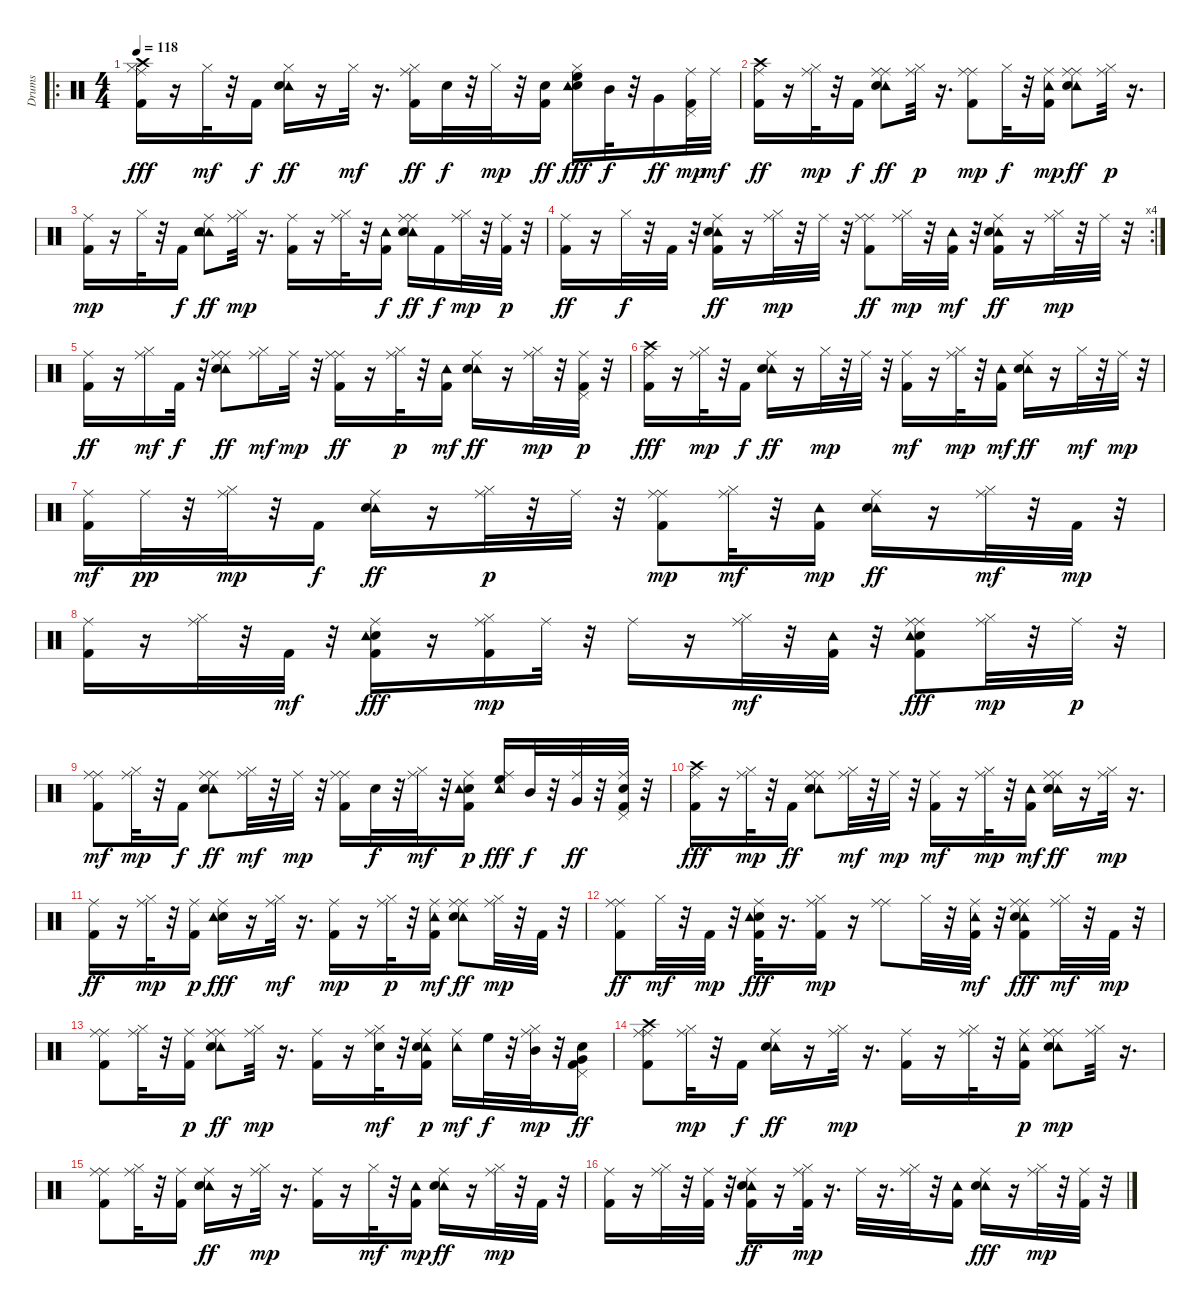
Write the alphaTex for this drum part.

\track ("Drums" "Drums") {instrument percussion}
\staff {score}
\articulation defaults
\ro
\ts (4 4)
\tempo 118
\clef neutral
\ks c
("Hi-Hat (closed)" "Kick (hit) 2" "Ride (middle)" "Crash high (hit)").16{dy fff} r.16 "Hi-Hat (closed)".32{dy mf} r.32 "Kick (hit) 2".16{dy f} ("Hi-Hat (closed)" "Tambourine (hit)" "Electric Snare (hit)").16{dy ff} r.16 "Hi-Hat (closed)".32{dy mf} r.16{d} ("Hi-Hat (closed)" "Ride (middle)" "Kick (hit) 2").16{dy ff} "Electric Snare (hit)".32{dy f} r.32 "Hi-Hat (closed)".32{dy mp} r.32 ("Kick (hit) 2" "Electric Snare (hit)").16{dy ff} ("High Floor Tom (hit)" "Electric Snare (hit)" "Hi-Hat (closed)" "Tambourine (hit)").16{dy fff} "Mid Tom (hit)".32{dy f} r.32 "Very Low Tom (hit)".16{dy ff} ("Pedal Hi-Hat (hit)" "Kick (hit) 2" "Ride (middle)").32{dy mp} "Ride (middle)".32{dy mf} |
("Kick (hit) 2" "Ride (middle)" "Crash high (hit)").16{dy ff} r.16 ("Ride (middle)" "Hi-Hat (closed)").32{dy mp} r.32 "Kick (hit) 2".16{dy f} ("Ride (middle)" "Ride (middle)" "Tambourine (hit)" "Electric Snare (hit)").8{dy ff} ("Hi-Hat (closed)" "Ride (middle)").32{dy p} r.16{d} ("Kick (hit) 2" "Ride (middle)" "Ride (middle)").8{dy mp} "Hi-Hat (closed)".32{dy f} r.32 ("Tambourine (hit)" "Kick (hit) 2" "Ride (middle)").16{dy mp} ("Ride (middle)" "Ride (middle)" "Tambourine (hit)" "Electric Snare (hit)").8{dy ff} ("Ride (middle)" "Hi-Hat (closed)").32{dy p} r.16{d} |
("Ride (middle)" "Kick (hit) 2").16{dy mp} r.16 "Hi-Hat (closed)".32 r.32 "Kick (hit) 2".16{dy f} ("Ride (middle)" "Tambourine (hit)" "Tambourine (hit)" "Electric Snare (hit)").8{dy ff} ("Hi-Hat (closed)" "Ride (middle)").32{dy mp} r.16{d} ("Ride (middle)" "Kick (hit) 2").16 r.16 ("Ride (middle)" "Hi-Hat (closed)").32 r.32 ("Kick (hit) 2" "Tambourine (hit)").16{dy f} ("Ride (middle)" "Ride (middle)" "Tambourine (hit)" "Electric Snare (hit)").16{dy ff} "Kick (hit) 2".16{dy f} ("Ride (middle)" "Hi-Hat (closed)").32{dy mp} r.32 ("Kick (hit) 2" "Ride (middle)").32{dy p} r.32 |
\rc 4
("Ride (middle)" "Kick (hit) 2").16{dy ff} r.16 "Hi-Hat (closed)".32{dy f} r.32 "Kick (hit) 2".32 r.32 ("Ride (middle)" "Kick (hit) 2" "Tambourine (hit)" "Electric Snare (hit)").16{dy ff} r.16 ("Hi-Hat (closed)" "Ride (middle)").32{dy mp} r.32 "Ride (middle)".32 r.32 ("Ride (middle)" "Ride (middle)" "Kick (hit) 2").8{dy ff} ("Ride (middle)" "Hi-Hat (closed)").32{dy mp} r.32 ("Kick (hit) 2" "Tambourine (hit)").32{dy mf} r.32 ("Kick (hit) 2" "Ride (middle)" "Tambourine (hit)" "Electric Snare (hit)").16{dy ff} r.16 ("Ride (middle)" "Hi-Hat (closed)").32{dy mp} r.32 "Ride (middle)".32 r.32 |
("Ride (middle)" "Kick (hit) 2").16{dy ff} r.16 ("Ride (middle)" "Hi-Hat (closed)").16{dy mf} "Kick (hit) 2".32{dy f} r.32 ("Tambourine (hit)" "Ride (middle)" "Ride (middle)" "Electric Snare (hit)").8{dy ff} ("Ride (middle)" "Hi-Hat (closed)").16{dy mf} "Ride (middle)".32{dy mp} r.32 ("Ride (middle)" "Ride (middle)" "Kick (hit) 2").16{dy ff} r.16 ("Ride (middle)" "Hi-Hat (closed)").32{dy p} r.32 ("Kick (hit) 2" "Tambourine (hit)").16{dy mf} ("Ride (middle)" "Tambourine (hit)" "Electric Snare (hit)").16{dy ff} r.16 ("Ride (middle)" "Hi-Hat (closed)").32{dy mp} r.32 ("Pedal Hi-Hat (hit)" "Kick (hit) 2" "Ride (middle)").32{dy p} r.32 |
("Kick (hit) 2" "Ride (middle)" "Crash high (hit)").16{dy fff} r.16 ("Hi-Hat (closed)" "Ride (middle)").32{dy mp} r.32 "Kick (hit) 2".16{dy f} ("Ride (middle)" "Tambourine (hit)" "Electric Snare (hit)").16{dy ff} r.16 "Hi-Hat (closed)".32{dy mp} r.32 "Ride (middle)".32 r.32 ("Kick (hit) 2" "Ride (middle)").16{dy mf} r.16 ("Hi-Hat (closed)" "Ride (middle)").32{dy mp} r.32 ("Kick (hit) 2" "Tambourine (hit)").16{dy mf} ("Ride (middle)" "Tambourine (hit)" "Electric Snare (hit)").16{dy ff} r.16 "Hi-Hat (closed)".32{dy mf} r.32 "Ride (middle)".32{dy mp} r.32 |
("Kick (hit) 2" "Ride (middle)").16{dy mf} "Ride (middle)".32{dy pp} r.32 ("Ride (middle)" "Hi-Hat (closed)").32{dy mp} r.32 "Kick (hit) 2".16{dy f} ("Ride (middle)" "Tambourine (hit)" "Electric Snare (hit)").16{dy ff} r.16 ("Ride (middle)" "Hi-Hat (closed)").32{dy p} r.32 "Ride (middle)".32 r.32 ("Kick (hit) 2" "Ride (middle)" "Ride (middle)").8{dy mp} ("Ride (middle)" "Hi-Hat (closed)").32{dy mf} r.32 ("Kick (hit) 2" "Tambourine (hit)").16{dy mp} ("Ride (middle)" "Tambourine (hit)" "Electric Snare (hit)").16{dy ff} r.16 ("Ride (middle)" "Hi-Hat (closed)").32{dy mf} r.32 "Kick (hit) 2".32{dy mp} r.32 |
("Kick (hit) 2" "Ride (middle)").16 r.16 ("Ride (middle)" "Hi-Hat (closed)").32 r.32 "Kick (hit) 2".32{dy mf} r.32 ("Ride (middle)" "Kick (hit) 2" "Electric Snare (hit)" "Tambourine (hit)").16{dy fff} r.16 ("Ride (middle)" "Kick (hit) 2" "Hi-Hat (closed)").16{dy mp} "Ride (middle)".32 r.32 "Ride (middle)".16 r.16 ("Ride (middle)" "Hi-Hat (closed)").32{dy mf} r.32 ("Kick (hit) 2" "Tambourine (hit)").32 r.32 ("Kick (hit) 2" "Ride (middle)" "Ride (middle)" "Electric Snare (hit)" "Tambourine (hit)").8{dy fff} ("Ride (middle)" "Hi-Hat (closed)").32{dy mp} r.32 "Ride (middle)".32{dy p} r.32 |
("Kick (hit) 2" "Ride (middle)" "Ride (middle)").8{dy mf} ("Ride (middle)" "Hi-Hat (closed)").32{dy mp} r.32 "Kick (hit) 2".16{dy f} ("Ride (middle)" "Ride (middle)" "Tambourine (hit)" "Electric Snare (hit)").8{dy ff} ("Ride (middle)" "Hi-Hat (closed)").32{dy mf} r.32 "Ride (middle)".32{dy mp} r.32 ("Ride (middle)" "Kick (hit) 2" "Ride (middle)").16 "Electric Snare (hit)".32{dy f} r.32 ("Ride (middle)" "Hi-Hat (closed)").32{dy mf} r.32 ("Electric Snare (hit)" "Kick (hit) 2" "Ride (middle)" "Tambourine (hit)").16{dy p} ("High Floor Tom (hit)" "Ride (middle)" "Tambourine (hit)").16{dy fff} "Mid Tom (hit)".32{dy f} r.32 ("Ride (middle)" "Very Low Tom (hit)").32{dy ff} r.32 ("Ride (middle)" "Kick (hit) 2" "Pedal Hi-Hat (hit)" "Electric Snare (hit)").32 r.32 |
("Ride (middle)" "Kick (hit) 2" "Crash high (hit)").16{dy fff} r.16 ("Ride (middle)" "Hi-Hat (closed)").32{dy mp} r.32 "Kick (hit) 2".16{dy ff} ("Ride (middle)" "Ride (middle)" "Tambourine (hit)" "Electric Snare (hit)").8 ("Ride (middle)" "Hi-Hat (closed)").32{dy mf} r.32 "Ride (middle)".32{dy mp} r.32 ("Ride (middle)" "Kick (hit) 2").16{dy mf} r.16 ("Ride (middle)" "Hi-Hat (closed)").32{dy mp} r.32 ("Tambourine (hit)" "Kick (hit) 2").16{dy mf} ("Ride (middle)" "Ride (middle)" "Tambourine (hit)" "Electric Snare (hit)").16{dy ff} r.16 ("Ride (middle)" "Hi-Hat (closed)").32{dy mp} r.16{d} |
("Ride (middle)" "Kick (hit) 2").16{dy ff} r.16 ("Ride (middle)" "Hi-Hat (closed)").32{dy mp} r.32 ("Kick (hit) 2" "Ride (middle)").16{dy p} ("Ride (middle)" "Electric Snare (hit)" "Tambourine (hit)").16{dy fff} r.16 ("Ride (middle)" "Hi-Hat (closed)").32{dy mf} r.16{d} ("Ride (middle)" "Kick (hit) 2").16{dy mp} r.16 ("Hi-Hat (closed)" "Ride (middle)").32{dy p} r.32 ("Kick (hit) 2" "Ride (middle)" "Tambourine (hit)").16{dy mf} ("Ride (middle)" "Ride (middle)" "Tambourine (hit)" "Electric Snare (hit)").8{dy ff} ("Ride (middle)" "Hi-Hat (closed)").32{dy mp} r.32 "Kick (hit) 2".32 r.32 |
("Ride (middle)" "Ride (middle)" "Kick (hit) 2").8{dy ff} "Hi-Hat (closed)".32{dy mf} r.32 "Kick (hit) 2".32{dy mp} r.32 ("Ride (middle)" "Electric Snare (hit)" "Kick (hit) 2" "Tambourine (hit)").32{dy fff} r.16{d} ("Kick (hit) 2" "Hi-Hat (closed)" "Ride (middle)").16{dy mp} r.16 ("Ride (middle)" "Ride (middle)").8 "Hi-Hat (closed)".32 r.32 ("Kick (hit) 2" "Ride (middle)" "Tambourine (hit)").32{dy mf} r.32 ("Ride (middle)" "Kick (hit) 2" "Ride (middle)" "Tambourine (hit)" "Electric Snare (hit)").8{dy fff} ("Ride (middle)" "Hi-Hat (closed)").32{dy mf} r.32 "Kick (hit) 2".32{dy mp} r.32 |
("Kick (hit) 2" "Ride (middle)" "Ride (middle)").8 ("Ride (middle)" "Hi-Hat (closed)").32 r.32 ("Kick (hit) 2" "Ride (middle)").16{dy p} ("Ride (middle)" "Tambourine (hit)" "Ride (middle)" "Electric Snare (hit)").8{dy ff} ("Hi-Hat (closed)" "Ride (middle)").32{dy mp} r.16{d} ("Ride (middle)" "Kick (hit) 2").16 r.16 ("Ride (middle)" "Hi-Hat (closed)" "Electric Snare (hit)").32{dy mf} r.32 ("Kick (hit) 2" "Ride (middle)" "Tambourine (hit)" "Electric Snare (hit)").16{dy p} ("Tambourine (hit)" "Ride (middle)").16{dy mf} "High Floor Tom (hit)".32{dy f} r.32 ("Mid Tom (hit)" "Ride (middle)" "Hi-Hat (closed)").32{dy mp} r.32 ("Kick (hit) 2" "Pedal Hi-Hat (hit)" "Electric Snare (hit)" "Very Low Tom (hit)").16{dy ff} |
("Ride (middle)" "Ride (middle)" "Kick (hit) 2" "Crash high (hit)").8 ("Hi-Hat (closed)" "Ride (middle)").32{dy mp} r.32 "Kick (hit) 2".16{dy f} ("Ride (middle)" "Tambourine (hit)" "Electric Snare (hit)").16{dy ff} r.16 ("Hi-Hat (closed)" "Ride (middle)").32{dy mp} r.16{d} ("Kick (hit) 2" "Ride (middle)").16 r.16 ("Hi-Hat (closed)" "Ride (middle)").32 r.32 ("Kick (hit) 2" "Ride (middle)" "Tambourine (hit)").16{dy p} ("Tambourine (hit)" "Ride (middle)" "Ride (middle)" "Electric Snare (hit)").8{dy mp} ("Hi-Hat (closed)" "Ride (middle)").32 r.16{d} |
("Ride (middle)" "Kick (hit) 2" "Ride (middle)").8 ("Hi-Hat (closed)" "Ride (middle)").32 r.32 ("Ride (middle)" "Kick (hit) 2").16 ("Tambourine (hit)" "Ride (middle)" "Electric Snare (hit)").16{dy ff} r.16 ("Ride (middle)" "Hi-Hat (closed)").32{dy mp} r.16{d} ("Kick (hit) 2" "Ride (middle)").16 r.16 "Hi-Hat (closed)".32{dy mf} r.32 ("Kick (hit) 2" "Tambourine (hit)").16{dy mp} ("Tambourine (hit)" "Ride (middle)" "Electric Snare (hit)").16{dy ff} r.16 ("Ride (middle)" "Hi-Hat (closed)").32{dy mp} r.32 "Kick (hit) 2".32 r.32 |
("Kick (hit) 2" "Ride (middle)").16 r.16 ("Ride (middle)" "Hi-Hat (closed)").32 r.32 ("Ride (middle)" "Kick (hit) 2").32 r.32 ("Kick (hit) 2" "Ride (middle)" "Tambourine (hit)" "Electric Snare (hit)").16{dy ff} r.16 ("Hi-Hat (closed)" "Kick (hit) 2" "Ride (middle)").32{dy mp} r.16{d} "Ride (middle)".32 r.16{d} ("Ride (middle)" "Hi-Hat (closed)").32 r.32 ("Kick (hit) 2" "Tambourine (hit)").16 ("Ride (middle)" "Tambourine (hit)" "Electric Snare (hit)").16{dy fff} r.16 ("Ride (middle)" "Hi-Hat (closed)").32{dy mp} r.32 ("Kick (hit) 2" "Ride (middle)").32 r.32
